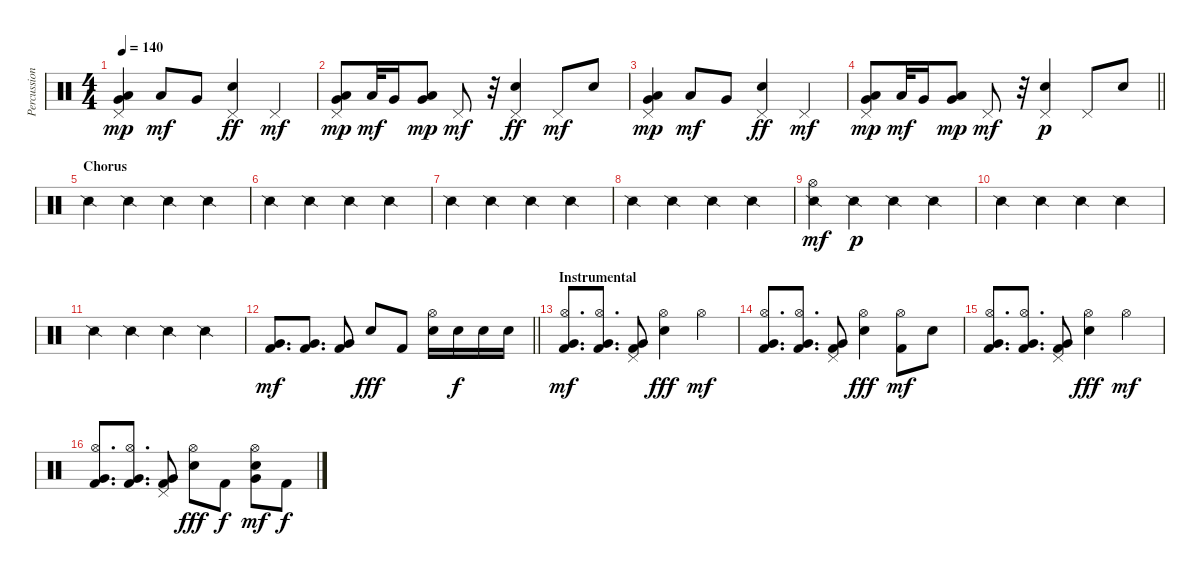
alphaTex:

\track ("Percussion" "Percussion") {instrument percussion}
\staff {score}
\articulation defaults
\ts (4 4)
\tempo 140
\clef neutral
\ks c
("Pedal Hi-Hat (hit)" "Very Low Tom (hit)" "Low Floor Tom (hit)").4{dy mp} "Low Floor Tom (hit)".8{dy mf} "Very Low Tom (hit)".8 ("Pedal Hi-Hat (hit)" "Snare (hit) 2").4{dy ff} "Pedal Hi-Hat (hit)".4{dy mf} |
("Pedal Hi-Hat (hit)" "Very Low Tom (hit)" "Low Floor Tom (hit)").8{dy mp} "Low Floor Tom (hit)".32{dy mf} "Very Low Tom (hit)".16 ("Very Low Tom (hit)" "Low Floor Tom (hit)").8{dy mp} "Pedal Hi-Hat (hit)".8{dy mf} r.32 ("Pedal Hi-Hat (hit)" "Snare (hit) 2").4{dy ff} "Pedal Hi-Hat (hit)".8{dy mf} "Snare (hit) 2".8 |
("Pedal Hi-Hat (hit)" "Very Low Tom (hit)" "Low Floor Tom (hit)").4{dy mp} "Low Floor Tom (hit)".8{dy mf} "Very Low Tom (hit)".8 ("Pedal Hi-Hat (hit)" "Snare (hit) 2").4{dy ff} "Pedal Hi-Hat (hit)".4{dy mf} |
\barLineRight lightlight
("Pedal Hi-Hat (hit)" "Very Low Tom (hit)" "Low Floor Tom (hit)").8{dy mp} "Low Floor Tom (hit)".32{dy mf} "Very Low Tom (hit)".16 ("Very Low Tom (hit)" "Low Floor Tom (hit)").8{dy mp} "Pedal Hi-Hat (hit)".8{dy mf} r.32 ("Pedal Hi-Hat (hit)" "Snare (hit) 2").4{dy p} "Pedal Hi-Hat (hit)".8 "Snare (hit) 2".8 |
\section ("" "Chorus")
"Snare (side stick) 2".4 "Snare (side stick) 2".4 "Snare (side stick) 2".4 "Snare (side stick) 2".4 |
"Snare (side stick) 2".4 "Snare (side stick) 2".4 "Snare (side stick) 2".4 "Snare (side stick) 2".4 |
"Snare (side stick) 2".4 "Snare (side stick) 2".4 "Snare (side stick) 2".4 "Snare (side stick) 2".4 |
"Snare (side stick) 2".4 "Snare (side stick) 2".4 "Snare (side stick) 2".4 "Snare (side stick) 2".4 |
("Snare (side stick) 2" "Hi-Hat (open)").4{dy mf} "Snare (side stick) 2".4{dy p} "Snare (side stick) 2".4 "Snare (side stick) 2".4 |
"Snare (side stick) 2".4 "Snare (side stick) 2".4 "Snare (side stick) 2".4 "Snare (side stick) 2".4 |
"Snare (side stick) 2".4 "Snare (side stick) 2".4 "Snare (side stick) 2".4 "Snare (side stick) 2".4 |
\barLineRight lightlight
("Kick (hit) 2" "Very Low Tom (hit)").8{d dy mf} ("Kick (hit) 2" "Very Low Tom (hit)").8{d} ("Kick (hit) 2" "Very Low Tom (hit)").8 "Snare (hit) 2".8{dy fff} "Kick (hit) 2".8 ("Hi-Hat (open)" "Snare (hit) 2").16 "Snare (hit) 2".16{dy f} "Snare (hit) 2".16 "Snare (hit) 2".16 |
\section ("" "Instrumental")
("Hi-Hat (open)" "Kick (hit) 2" "Very Low Tom (hit)").8{d dy mf} ("Hi-Hat (open)" "Kick (hit) 2" "Very Low Tom (hit)").8{d} ("Pedal Hi-Hat (hit)" "Kick (hit) 2" "Very Low Tom (hit)").8 ("Hi-Hat (open)" "Snare (hit) 2").4{dy fff} "Hi-Hat (open)".4{dy mf} |
("Hi-Hat (open)" "Kick (hit) 2" "Very Low Tom (hit)").8{d} ("Hi-Hat (open)" "Kick (hit) 2" "Very Low Tom (hit)").8{d} ("Pedal Hi-Hat (hit)" "Kick (hit) 2" "Very Low Tom (hit)").8 ("Hi-Hat (open)" "Snare (hit) 2").4{dy fff} ("Hi-Hat (open)" "Kick (hit) 2").8{dy mf} "Snare (hit) 2".8 |
("Hi-Hat (open)" "Kick (hit) 2" "Very Low Tom (hit)").8{d} ("Hi-Hat (open)" "Kick (hit) 2" "Very Low Tom (hit)").8{d} ("Pedal Hi-Hat (hit)" "Kick (hit) 2" "Very Low Tom (hit)").8 ("Hi-Hat (open)" "Snare (hit) 2").4{dy fff} "Hi-Hat (open)".4{dy mf} |
("Hi-Hat (open)" "Kick (hit) 2" "Very Low Tom (hit)").8{d} ("Hi-Hat (open)" "Kick (hit) 2" "Very Low Tom (hit)").8{d} ("Pedal Hi-Hat (hit)" "Kick (hit) 2" "Very Low Tom (hit)").8 ("Hi-Hat (open)" "Snare (hit) 2").8{dy fff} "Kick (hit) 2".8{dy f} ("Snare (hit) 2" "Very Low Tom (hit)" "Hi-Hat (open)").8{dy mf} "Kick (hit) 2".8{dy f}
